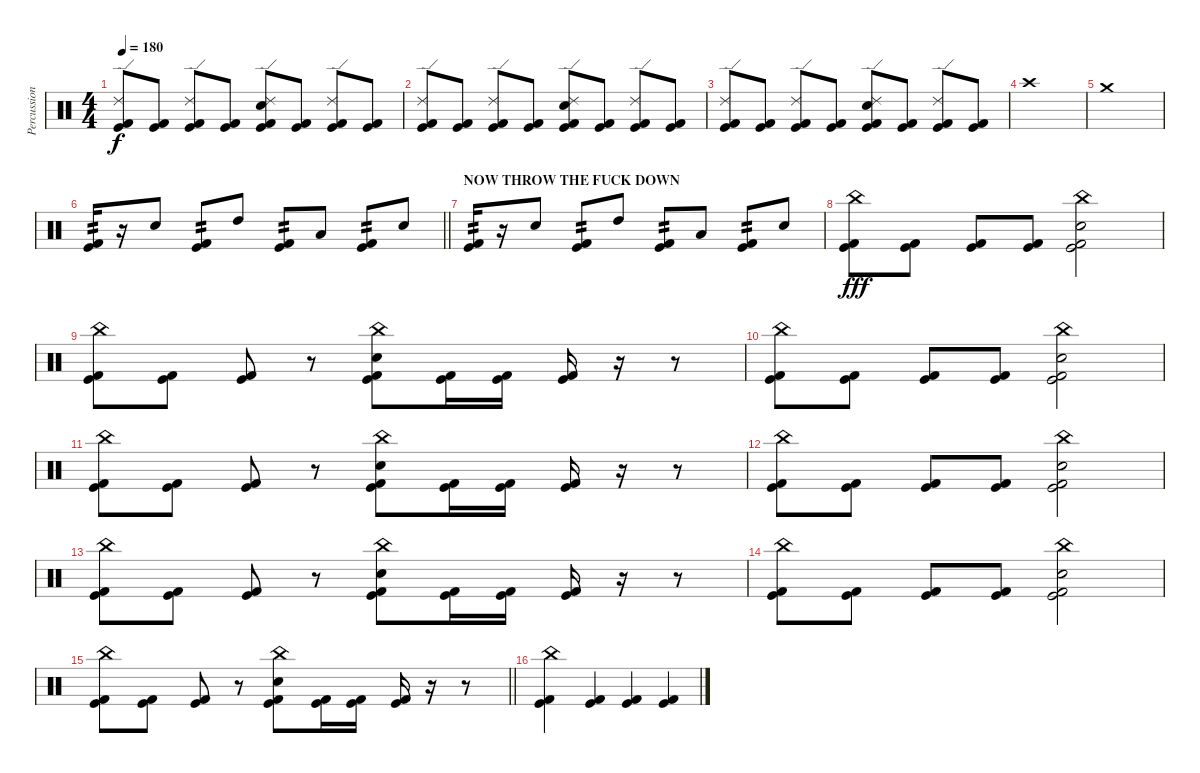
\track ("Percussion" "Percussion") {instrument percussion}
\staff {score}
\articulation defaults
\ts (4 4)
\tempo 180
\clef neutral
\ks c
("Ride (edge) 2" "Kick (hit)" "Kick (hit) 2").8{dy f} ("Kick (hit)" "Kick (hit) 2").8 ("Ride (edge) 2" "Kick (hit)" "Kick (hit) 2").8 ("Kick (hit)" "Kick (hit) 2").8 ("Ride (edge) 2" "Snare (hit) 2" "Kick (hit)" "Kick (hit) 2").8 ("Kick (hit)" "Kick (hit) 2").8 ("Ride (edge) 2" "Kick (hit)" "Kick (hit) 2").8 ("Kick (hit)" "Kick (hit) 2").8 |
("Ride (edge) 2" "Kick (hit)" "Kick (hit) 2").8 ("Kick (hit)" "Kick (hit) 2").8 ("Ride (edge) 2" "Kick (hit)" "Kick (hit) 2").8 ("Kick (hit)" "Kick (hit) 2").8 ("Ride (edge) 2" "Snare (hit) 2" "Kick (hit)" "Kick (hit) 2").8 ("Kick (hit)" "Kick (hit) 2").8 ("Ride (edge) 2" "Kick (hit)" "Kick (hit) 2").8 ("Kick (hit)" "Kick (hit) 2").8 |
("Ride (edge) 2" "Kick (hit)" "Kick (hit) 2").8 ("Kick (hit)" "Kick (hit) 2").8 ("Ride (edge) 2" "Kick (hit)" "Kick (hit) 2").8 ("Kick (hit)" "Kick (hit) 2").8 ("Ride (edge) 2" "Snare (hit) 2" "Kick (hit)" "Kick (hit) 2").8 ("Kick (hit)" "Kick (hit) 2").8 ("Ride (edge) 2" "Kick (hit)" "Kick (hit) 2").8 ("Kick (hit)" "Kick (hit) 2").8 |
"Crash high (hit)".1 |
"Crash medium (hit)".1 |
\barLineRight lightlight
("Kick (hit)" "Kick (hit) 2").16{tp 2} r.16 "Snare (hit) 2".8 ("Kick (hit)" "Kick (hit) 2").8{tp 2} "High Tom (hit)".8 ("Kick (hit)" "Kick (hit) 2").8{tp 2} "Low Tom (hit)".8 ("Kick (hit)" "Kick (hit) 2").8{tp 2} "Snare (hit) 2".8 |
\section ("" "NOW THROW THE FUCK DOWN")
("Kick (hit)" "Kick (hit) 2").16{tp 2} r.16 "Snare (hit) 2".8 ("Kick (hit)" "Kick (hit) 2").8{tp 2} "High Tom (hit)".8 ("Kick (hit)" "Kick (hit) 2").8{tp 2} "Low Tom (hit)".8 ("Kick (hit)" "Kick (hit) 2").8{tp 2} "Snare (hit) 2".8 |
("China (hit)" "Kick (hit)" "Kick (hit) 2").8{dy fff} ("Kick (hit)" "Kick (hit) 2").8 ("Kick (hit)" "Kick (hit) 2").8 ("Kick (hit)" "Kick (hit) 2").8 ("China (hit)" "Snare (hit) 2" "Kick (hit)" "Kick (hit) 2").2 |
("China (hit)" "Kick (hit)" "Kick (hit) 2").8 ("Kick (hit)" "Kick (hit) 2").8 ("Kick (hit)" "Kick (hit) 2").8 r.8 ("China (hit)" "Snare (hit) 2" "Kick (hit)" "Kick (hit) 2").8 ("Kick (hit) 2" "Kick (hit)").16 ("Kick (hit) 2" "Kick (hit)").16 ("Kick (hit) 2" "Kick (hit)").16 r.16 r.8 |
("China (hit)" "Kick (hit)" "Kick (hit) 2").8 ("Kick (hit)" "Kick (hit) 2").8 ("Kick (hit)" "Kick (hit) 2").8 ("Kick (hit)" "Kick (hit) 2").8 ("China (hit)" "Snare (hit) 2" "Kick (hit)" "Kick (hit) 2").2 |
("China (hit)" "Kick (hit) 2" "Kick (hit)").8 ("Kick (hit) 2" "Kick (hit)").8 ("Kick (hit) 2" "Kick (hit)").8 r.8 ("China (hit)" "Snare (hit) 2" "Kick (hit) 2" "Kick (hit)").8 ("Kick (hit) 2" "Kick (hit)").16 ("Kick (hit) 2" "Kick (hit)").16 ("Kick (hit) 2" "Kick (hit)").16 r.16 r.8 |
("China (hit)" "Kick (hit)" "Kick (hit) 2").8 ("Kick (hit)" "Kick (hit) 2").8 ("Kick (hit)" "Kick (hit) 2").8 ("Kick (hit)" "Kick (hit) 2").8 ("China (hit)" "Snare (hit) 2" "Kick (hit)" "Kick (hit) 2").2 |
("China (hit)" "Kick (hit) 2" "Kick (hit)").8 ("Kick (hit) 2" "Kick (hit)").8 ("Kick (hit) 2" "Kick (hit)").8 r.8 ("China (hit)" "Snare (hit) 2" "Kick (hit) 2" "Kick (hit)").8 ("Kick (hit) 2" "Kick (hit)").16 ("Kick (hit) 2" "Kick (hit)").16 ("Kick (hit) 2" "Kick (hit)").16 r.16 r.8 |
("China (hit)" "Kick (hit)" "Kick (hit) 2").8 ("Kick (hit)" "Kick (hit) 2").8 ("Kick (hit)" "Kick (hit) 2").8 ("Kick (hit)" "Kick (hit) 2").8 ("China (hit)" "Snare (hit) 2" "Kick (hit)" "Kick (hit) 2").2 |
\barLineRight lightlight
("China (hit)" "Kick (hit) 2" "Kick (hit)").8 ("Kick (hit) 2" "Kick (hit)").8 ("Kick (hit) 2" "Kick (hit)").8 r.8 ("China (hit)" "Snare (hit) 2" "Kick (hit) 2" "Kick (hit)").8 ("Kick (hit) 2" "Kick (hit)").16 ("Kick (hit) 2" "Kick (hit)").16 ("Kick (hit) 2" "Kick (hit)").16 r.16 r.8 |
("China (hit)" "Kick (hit)" "Kick (hit) 2").4 ("Kick (hit)" "Kick (hit) 2").4 ("Kick (hit)" "Kick (hit) 2").4 ("Kick (hit)" "Kick (hit) 2").4
